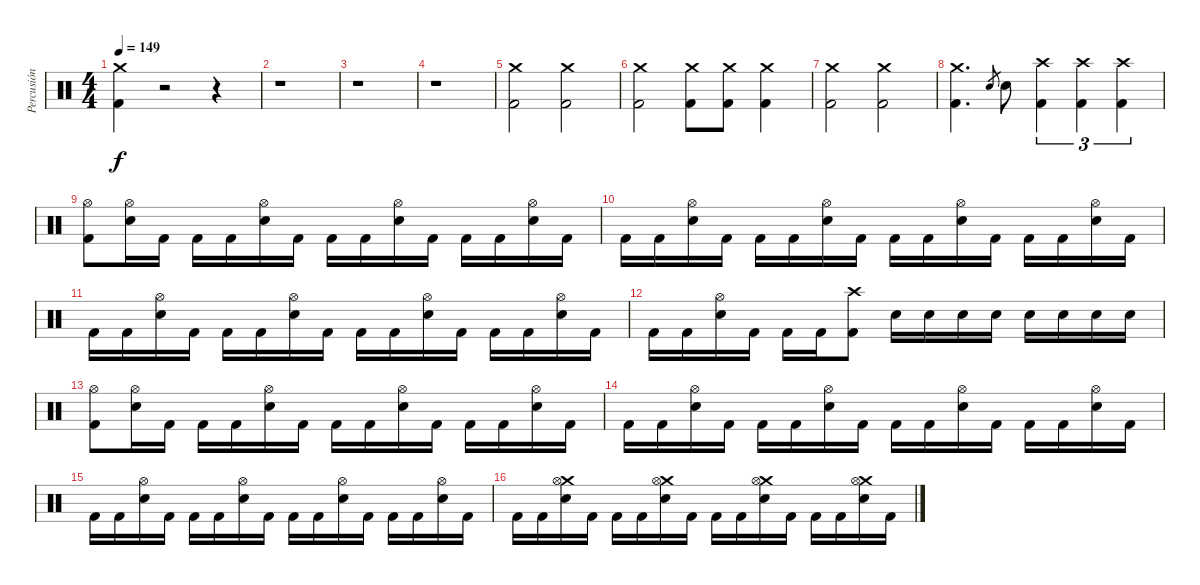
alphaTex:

\track ("Percusión" "Percusión") {instrument percussion}
\staff {score}
\articulation defaults
\ts (4 4)
\tempo 149
\clef neutral
\ks c
("Crash medium (hit)" "Kick (hit) 2").4{dy f} r.2 r.4 |
r.1 |
r.1 |
r.1 |
("Crash medium (hit)" "Kick (hit) 2").2 ("Crash medium (hit)" "Kick (hit) 2").2 |
("Crash medium (hit)" "Kick (hit) 2").2 ("Crash medium (hit)" "Kick (hit) 2").8 ("Crash medium (hit)" "Kick (hit) 2").8 ("Crash medium (hit)" "Kick (hit) 2").4 |
("Crash medium (hit)" "Kick (hit) 2").2 ("Crash medium (hit)" "Kick (hit) 2").2 |
("Crash medium (hit)" "Kick (hit) 2").4{d} "Snare (hit) 2".8{gr} "Snare (hit) 2".8 ("Crash high (hit)" "Kick (hit) 2").4{tu (3 2)} ("Crash high (hit)" "Kick (hit) 2").4{tu (3 2)} ("Crash high (hit)" "Kick (hit) 2").4{tu (3 2)} |
("Hi-Hat (open)" "Kick (hit) 2").8 ("Hi-Hat (open)" "Snare (hit) 2").16 "Kick (hit) 2".16 "Kick (hit) 2".16 "Kick (hit) 2".16 ("Hi-Hat (open)" "Snare (hit) 2").16 "Kick (hit) 2".16 "Kick (hit) 2".16 "Kick (hit) 2".16 ("Hi-Hat (open)" "Snare (hit) 2").16 "Kick (hit) 2".16 "Kick (hit) 2".16 "Kick (hit) 2".16 ("Hi-Hat (open)" "Snare (hit) 2").16 "Kick (hit) 2".16 |
"Kick (hit) 2".16 "Kick (hit) 2".16 ("Hi-Hat (open)" "Snare (hit) 2").16 "Kick (hit) 2".16 "Kick (hit) 2".16 "Kick (hit) 2".16 ("Hi-Hat (open)" "Snare (hit) 2").16 "Kick (hit) 2".16 "Kick (hit) 2".16 "Kick (hit) 2".16 ("Hi-Hat (open)" "Snare (hit) 2").16 "Kick (hit) 2".16 "Kick (hit) 2".16 "Kick (hit) 2".16 ("Hi-Hat (open)" "Snare (hit) 2").16 "Kick (hit) 2".16 |
"Kick (hit) 2".16 "Kick (hit) 2".16 ("Hi-Hat (open)" "Snare (hit) 2").16 "Kick (hit) 2".16 "Kick (hit) 2".16 "Kick (hit) 2".16 ("Hi-Hat (open)" "Snare (hit) 2").16 "Kick (hit) 2".16 "Kick (hit) 2".16 "Kick (hit) 2".16 ("Hi-Hat (open)" "Snare (hit) 2").16 "Kick (hit) 2".16 "Kick (hit) 2".16 "Kick (hit) 2".16 ("Hi-Hat (open)" "Snare (hit) 2").16 "Kick (hit) 2".16 |
"Kick (hit) 2".16 "Kick (hit) 2".16 ("Hi-Hat (open)" "Snare (hit) 2").16 "Kick (hit) 2".16 "Kick (hit) 2".16 "Kick (hit) 2".16 ("Crash high (hit)" "Kick (hit) 2").8 "Snare (hit) 2".16 "Snare (hit) 2".16 "Snare (hit) 2".16 "Snare (hit) 2".16 "Snare (hit) 2".16 "Snare (hit) 2".16 "Snare (hit) 2".16 "Snare (hit) 2".16 |
("Hi-Hat (open)" "Kick (hit) 2").8 ("Hi-Hat (open)" "Snare (hit) 2").16 "Kick (hit) 2".16 "Kick (hit) 2".16 "Kick (hit) 2".16 ("Hi-Hat (open)" "Snare (hit) 2").16 "Kick (hit) 2".16 "Kick (hit) 2".16 "Kick (hit) 2".16 ("Hi-Hat (open)" "Snare (hit) 2").16 "Kick (hit) 2".16 "Kick (hit) 2".16 "Kick (hit) 2".16 ("Hi-Hat (open)" "Snare (hit) 2").16 "Kick (hit) 2".16 |
"Kick (hit) 2".16 "Kick (hit) 2".16 ("Hi-Hat (open)" "Snare (hit) 2").16 "Kick (hit) 2".16 "Kick (hit) 2".16 "Kick (hit) 2".16 ("Hi-Hat (open)" "Snare (hit) 2").16 "Kick (hit) 2".16 "Kick (hit) 2".16 "Kick (hit) 2".16 ("Hi-Hat (open)" "Snare (hit) 2").16 "Kick (hit) 2".16 "Kick (hit) 2".16 "Kick (hit) 2".16 ("Hi-Hat (open)" "Snare (hit) 2").16 "Kick (hit) 2".16 |
"Kick (hit) 2".16 "Kick (hit) 2".16 ("Hi-Hat (open)" "Snare (hit) 2").16 "Kick (hit) 2".16 "Kick (hit) 2".16 "Kick (hit) 2".16 ("Hi-Hat (open)" "Snare (hit) 2").16 "Kick (hit) 2".16 "Kick (hit) 2".16 "Kick (hit) 2".16 ("Hi-Hat (open)" "Snare (hit) 2").16 "Kick (hit) 2".16 "Kick (hit) 2".16 "Kick (hit) 2".16 ("Hi-Hat (open)" "Snare (hit) 2").16 "Kick (hit) 2".16 |
"Kick (hit) 2".16 "Kick (hit) 2".16 ("Crash medium (hit)" "Hi-Hat (open)" "Snare (hit) 2").16 "Kick (hit) 2".16 "Kick (hit) 2".16 "Kick (hit) 2".16 ("Crash medium (hit)" "Hi-Hat (open)" "Snare (hit) 2").16 "Kick (hit) 2".16 "Kick (hit) 2".16 "Kick (hit) 2".16 ("Crash medium (hit)" "Hi-Hat (open)" "Snare (hit) 2").16 "Kick (hit) 2".16 "Kick (hit) 2".16 "Kick (hit) 2".16 ("Crash medium (hit)" "Hi-Hat (open)" "Snare (hit) 2").16 "Kick (hit) 2".16
